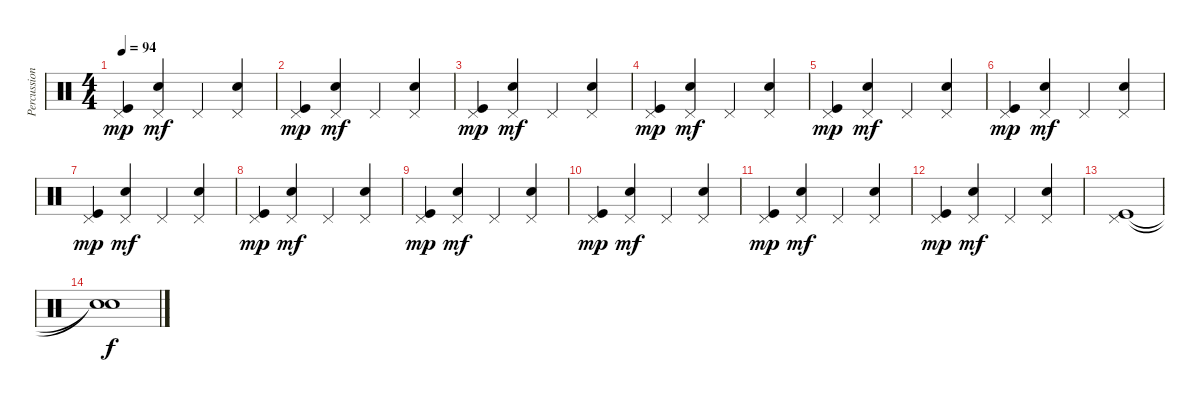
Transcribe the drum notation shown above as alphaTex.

\track ("Percussions" "Percussion") {instrument percussion}
\staff {score}
\articulation defaults
\ts (4 4)
\tempo 94
\clef neutral
\ks c
("Pedal Hi-Hat (hit)" "Kick (hit)").4{dy mp} ("Pedal Hi-Hat (hit)" "Snare (hit) 2").4{dy mf} "Pedal Hi-Hat (hit)".4 ("Pedal Hi-Hat (hit)" "Snare (hit) 2").4 |
("Pedal Hi-Hat (hit)" "Kick (hit)").4{dy mp} ("Pedal Hi-Hat (hit)" "Snare (hit) 2").4{dy mf} "Pedal Hi-Hat (hit)".4 ("Pedal Hi-Hat (hit)" "Snare (hit) 2").4 |
("Pedal Hi-Hat (hit)" "Kick (hit)").4{dy mp} ("Pedal Hi-Hat (hit)" "Snare (hit) 2").4{dy mf} "Pedal Hi-Hat (hit)".4 ("Pedal Hi-Hat (hit)" "Snare (hit) 2").4 |
("Pedal Hi-Hat (hit)" "Kick (hit)").4{dy mp} ("Pedal Hi-Hat (hit)" "Snare (hit) 2").4{dy mf} "Pedal Hi-Hat (hit)".4 ("Pedal Hi-Hat (hit)" "Snare (hit) 2").4 |
("Pedal Hi-Hat (hit)" "Kick (hit)").4{dy mp} ("Pedal Hi-Hat (hit)" "Snare (hit) 2").4{dy mf} "Pedal Hi-Hat (hit)".4 ("Pedal Hi-Hat (hit)" "Snare (hit) 2").4 |
("Pedal Hi-Hat (hit)" "Kick (hit)").4{dy mp} ("Pedal Hi-Hat (hit)" "Snare (hit) 2").4{dy mf} "Pedal Hi-Hat (hit)".4 ("Pedal Hi-Hat (hit)" "Snare (hit) 2").4 |
("Pedal Hi-Hat (hit)" "Kick (hit)").4{dy mp} ("Pedal Hi-Hat (hit)" "Snare (hit) 2").4{dy mf} "Pedal Hi-Hat (hit)".4 ("Pedal Hi-Hat (hit)" "Snare (hit) 2").4 |
("Pedal Hi-Hat (hit)" "Kick (hit)").4{dy mp} ("Pedal Hi-Hat (hit)" "Snare (hit) 2").4{dy mf} "Pedal Hi-Hat (hit)".4 ("Pedal Hi-Hat (hit)" "Snare (hit) 2").4 |
("Pedal Hi-Hat (hit)" "Kick (hit)").4{dy mp} ("Pedal Hi-Hat (hit)" "Snare (hit) 2").4{dy mf} "Pedal Hi-Hat (hit)".4 ("Pedal Hi-Hat (hit)" "Snare (hit) 2").4 |
("Pedal Hi-Hat (hit)" "Kick (hit)").4{dy mp} ("Pedal Hi-Hat (hit)" "Snare (hit) 2").4{dy mf} "Pedal Hi-Hat (hit)".4 ("Pedal Hi-Hat (hit)" "Snare (hit) 2").4 |
("Pedal Hi-Hat (hit)" "Kick (hit)").4{dy mp} ("Pedal Hi-Hat (hit)" "Snare (hit) 2").4{dy mf} "Pedal Hi-Hat (hit)".4 ("Pedal Hi-Hat (hit)" "Snare (hit) 2").4 |
("Pedal Hi-Hat (hit)" "Kick (hit)").4{dy mp} ("Pedal Hi-Hat (hit)" "Snare (hit) 2").4{dy mf} "Pedal Hi-Hat (hit)".4 ("Pedal Hi-Hat (hit)" "Snare (hit) 2").4 |
("Pedal Hi-Hat (hit)" "Kick (hit)").1 |
("Snare (hit)"{t} "Snare (hit)"{t}).1{dy f}
